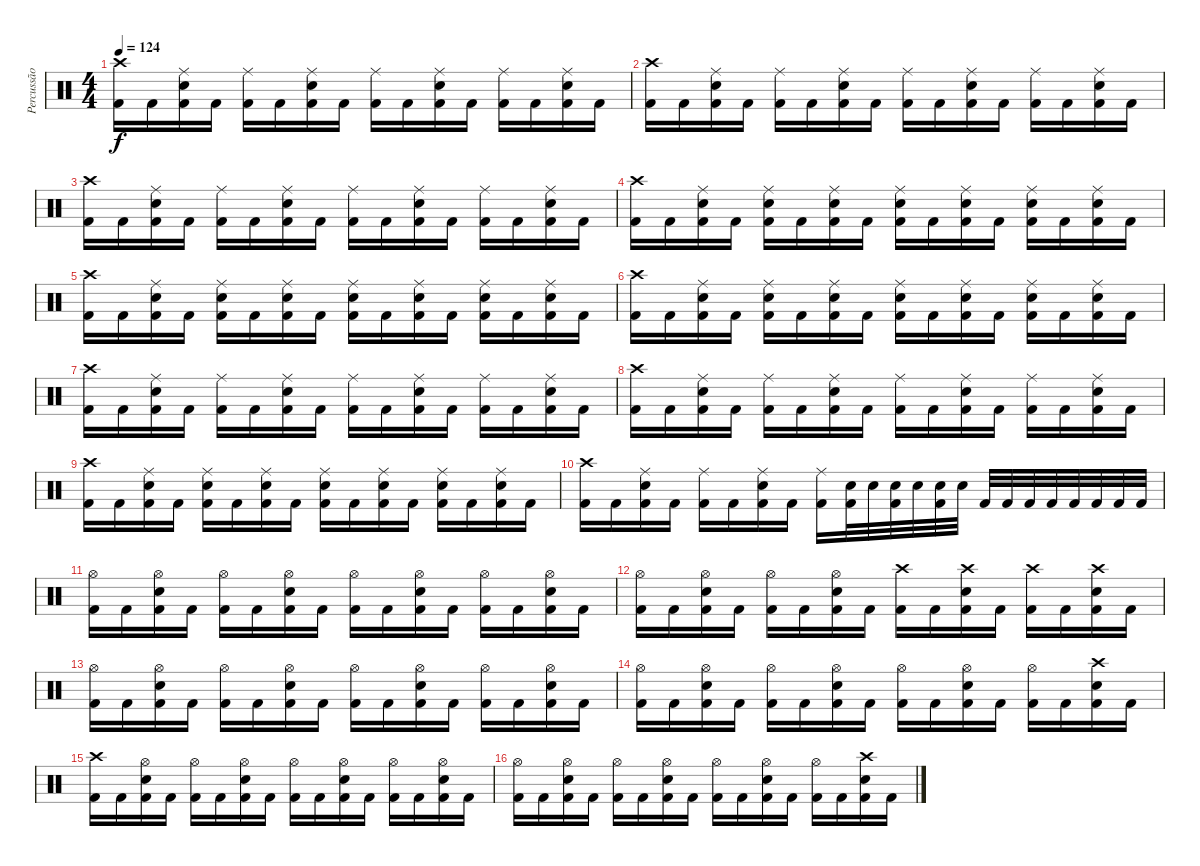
\track ("Percussão" "Percussão") {instrument percussion}
\staff {score}
\articulation defaults
\ts (4 4)
\tempo 124
\clef neutral
\ks c
("Kick (hit) 2" "Crash high (hit)").16{dy f} "Kick (hit) 2".16 ("Kick (hit) 2" "Electric Snare (hit)" "Ride (middle)").16 "Kick (hit) 2".16 ("Kick (hit) 2" "Ride (middle)").16 "Kick (hit) 2".16 ("Kick (hit) 2" "Electric Snare (hit)" "Ride (middle)").16 "Kick (hit) 2".16 ("Kick (hit) 2" "Ride (middle)").16 "Kick (hit) 2".16 ("Kick (hit) 2" "Electric Snare (hit)" "Ride (middle)").16 "Kick (hit) 2".16 ("Kick (hit) 2" "Ride (middle)").16 "Kick (hit) 2".16 ("Kick (hit) 2" "Electric Snare (hit)" "Ride (middle)").16 "Kick (hit) 2".16 |
("Kick (hit) 2" "Crash high (hit)").16 "Kick (hit) 2".16 ("Kick (hit) 2" "Electric Snare (hit)" "Ride (middle)").16 "Kick (hit) 2".16 ("Kick (hit) 2" "Ride (middle)").16 "Kick (hit) 2".16 ("Kick (hit) 2" "Electric Snare (hit)" "Ride (middle)").16 "Kick (hit) 2".16 ("Kick (hit) 2" "Ride (middle)").16 "Kick (hit) 2".16 ("Kick (hit) 2" "Electric Snare (hit)" "Ride (middle)").16 "Kick (hit) 2".16 ("Kick (hit) 2" "Ride (middle)").16 "Kick (hit) 2".16 ("Kick (hit) 2" "Electric Snare (hit)" "Ride (middle)").16 "Kick (hit) 2".16 |
("Kick (hit) 2" "Crash high (hit)").16 "Kick (hit) 2".16 ("Kick (hit) 2" "Electric Snare (hit)" "Ride (middle)").16 "Kick (hit) 2".16 ("Kick (hit) 2" "Ride (middle)").16 "Kick (hit) 2".16 ("Kick (hit) 2" "Electric Snare (hit)" "Ride (middle)").16 "Kick (hit) 2".16 ("Kick (hit) 2" "Ride (middle)").16 "Kick (hit) 2".16 ("Kick (hit) 2" "Electric Snare (hit)" "Ride (middle)").16 "Kick (hit) 2".16 ("Kick (hit) 2" "Ride (middle)").16 "Kick (hit) 2".16 ("Kick (hit) 2" "Electric Snare (hit)" "Ride (middle)").16 "Kick (hit) 2".16 |
("Kick (hit) 2" "Crash high (hit)").16 "Kick (hit) 2".16 ("Kick (hit) 2" "Electric Snare (hit)" "Ride (middle)").16 "Kick (hit) 2".16 ("Kick (hit) 2" "Electric Snare (hit)" "Ride (middle)").16 "Kick (hit) 2".16 ("Kick (hit) 2" "Electric Snare (hit)" "Ride (middle)").16 "Kick (hit) 2".16 ("Kick (hit) 2" "Electric Snare (hit)" "Ride (middle)").16 "Kick (hit) 2".16 ("Kick (hit) 2" "Electric Snare (hit)" "Ride (middle)").16 "Kick (hit) 2".16 ("Kick (hit) 2" "Electric Snare (hit)" "Ride (middle)").16 "Kick (hit) 2".16 ("Kick (hit) 2" "Electric Snare (hit)" "Ride (middle)").16 "Kick (hit) 2".16 |
("Kick (hit) 2" "Crash high (hit)").16 "Kick (hit) 2".16 ("Kick (hit) 2" "Electric Snare (hit)" "Ride (middle)").16 "Kick (hit) 2".16 ("Kick (hit) 2" "Electric Snare (hit)" "Ride (middle)").16 "Kick (hit) 2".16 ("Kick (hit) 2" "Electric Snare (hit)" "Ride (middle)").16 "Kick (hit) 2".16 ("Kick (hit) 2" "Electric Snare (hit)" "Ride (middle)").16 "Kick (hit) 2".16 ("Kick (hit) 2" "Electric Snare (hit)" "Ride (middle)").16 "Kick (hit) 2".16 ("Kick (hit) 2" "Electric Snare (hit)" "Ride (middle)").16 "Kick (hit) 2".16 ("Kick (hit) 2" "Electric Snare (hit)" "Ride (middle)").16 "Kick (hit) 2".16 |
("Kick (hit) 2" "Crash high (hit)").16 "Kick (hit) 2".16 ("Kick (hit) 2" "Electric Snare (hit)" "Ride (middle)").16 "Kick (hit) 2".16 ("Kick (hit) 2" "Electric Snare (hit)" "Ride (middle)").16 "Kick (hit) 2".16 ("Kick (hit) 2" "Electric Snare (hit)" "Ride (middle)").16 "Kick (hit) 2".16 ("Kick (hit) 2" "Electric Snare (hit)" "Ride (middle)").16 "Kick (hit) 2".16 ("Kick (hit) 2" "Electric Snare (hit)" "Ride (middle)").16 "Kick (hit) 2".16 ("Kick (hit) 2" "Electric Snare (hit)" "Ride (middle)").16 "Kick (hit) 2".16 ("Kick (hit) 2" "Electric Snare (hit)" "Ride (middle)").16 "Kick (hit) 2".16 |
("Kick (hit) 2" "Crash high (hit)").16 "Kick (hit) 2".16 ("Kick (hit) 2" "Electric Snare (hit)" "Ride (middle)").16 "Kick (hit) 2".16 ("Kick (hit) 2" "Ride (middle)").16 "Kick (hit) 2".16 ("Kick (hit) 2" "Electric Snare (hit)" "Ride (middle)").16 "Kick (hit) 2".16 ("Kick (hit) 2" "Ride (middle)").16 "Kick (hit) 2".16 ("Kick (hit) 2" "Electric Snare (hit)" "Ride (middle)").16 "Kick (hit) 2".16 ("Kick (hit) 2" "Ride (middle)").16 "Kick (hit) 2".16 ("Kick (hit) 2" "Electric Snare (hit)" "Ride (middle)").16 "Kick (hit) 2".16 |
("Kick (hit) 2" "Crash high (hit)").16 "Kick (hit) 2".16 ("Kick (hit) 2" "Electric Snare (hit)" "Ride (middle)").16 "Kick (hit) 2".16 ("Kick (hit) 2" "Ride (middle)").16 "Kick (hit) 2".16 ("Kick (hit) 2" "Electric Snare (hit)" "Ride (middle)").16 "Kick (hit) 2".16 ("Kick (hit) 2" "Ride (middle)").16 "Kick (hit) 2".16 ("Kick (hit) 2" "Electric Snare (hit)" "Ride (middle)").16 "Kick (hit) 2".16 ("Kick (hit) 2" "Ride (middle)").16 "Kick (hit) 2".16 ("Kick (hit) 2" "Electric Snare (hit)" "Ride (middle)").16 "Kick (hit) 2".16 |
("Kick (hit) 2" "Crash high (hit)").16 "Kick (hit) 2".16 ("Kick (hit) 2" "Electric Snare (hit)" "Ride (middle)").16 "Kick (hit) 2".16 ("Kick (hit) 2" "Electric Snare (hit)" "Ride (middle)").16 "Kick (hit) 2".16 ("Kick (hit) 2" "Electric Snare (hit)" "Ride (middle)").16 "Kick (hit) 2".16 ("Kick (hit) 2" "Electric Snare (hit)" "Ride (middle)").16 "Kick (hit) 2".16 ("Kick (hit) 2" "Electric Snare (hit)" "Ride (middle)").16 "Kick (hit) 2".16 ("Kick (hit) 2" "Electric Snare (hit)" "Ride (middle)").16 "Kick (hit) 2".16 ("Kick (hit) 2" "Electric Snare (hit)" "Ride (middle)").16 "Kick (hit) 2".16 |
("Kick (hit) 2" "Crash high (hit)").16 "Kick (hit) 2".16 ("Kick (hit) 2" "Electric Snare (hit)" "Ride (middle)").16 "Kick (hit) 2".16 ("Kick (hit) 2" "Ride (middle)").16 "Kick (hit) 2".16 ("Kick (hit) 2" "Electric Snare (hit)" "Ride (middle)").16 "Kick (hit) 2".16 ("Kick (hit) 2" "Ride (middle)").16 ("Kick (hit) 2" "Electric Snare (hit)").32 "Electric Snare (hit)".32 ("Kick (hit) 2" "Electric Snare (hit)").32 "Electric Snare (hit)".32 ("Kick (hit) 2" "Electric Snare (hit)").32 "Electric Snare (hit)".32 "Kick (hit) 2".32 "Kick (hit) 2".32 "Kick (hit) 2".32 "Kick (hit) 2".32 "Kick (hit) 2".32 "Kick (hit) 2".32 "Kick (hit) 2".32 "Kick (hit) 2".32 |
("Kick (hit) 2" "Hi-Hat (open)").16 "Kick (hit) 2".16 ("Kick (hit) 2" "Electric Snare (hit)" "Hi-Hat (open)").16 "Kick (hit) 2".16 ("Kick (hit) 2" "Hi-Hat (open)").16 "Kick (hit) 2".16 ("Kick (hit) 2" "Electric Snare (hit)" "Hi-Hat (open)").16 "Kick (hit) 2".16 ("Kick (hit) 2" "Hi-Hat (open)").16 "Kick (hit) 2".16 ("Kick (hit) 2" "Electric Snare (hit)" "Hi-Hat (open)").16 "Kick (hit) 2".16 ("Kick (hit) 2" "Hi-Hat (open)").16 "Kick (hit) 2".16 ("Kick (hit) 2" "Electric Snare (hit)" "Hi-Hat (open)").16 "Kick (hit) 2".16 |
("Kick (hit) 2" "Hi-Hat (open)").16 "Kick (hit) 2".16 ("Kick (hit) 2" "Electric Snare (hit)" "Hi-Hat (open)").16 "Kick (hit) 2".16 ("Kick (hit) 2" "Hi-Hat (open)").16 "Kick (hit) 2".16 ("Kick (hit) 2" "Electric Snare (hit)" "Hi-Hat (open)").16 "Kick (hit) 2".16 ("Kick (hit) 2" "Crash high (hit)").16 "Kick (hit) 2".16 ("Kick (hit) 2" "Electric Snare (hit)" "Crash high (hit)").16 "Kick (hit) 2".16 ("Kick (hit) 2" "Crash high (hit)").16 "Kick (hit) 2".16 ("Kick (hit) 2" "Electric Snare (hit)" "Crash high (hit)").16 "Kick (hit) 2".16 |
("Kick (hit) 2" "Hi-Hat (open)").16 "Kick (hit) 2".16 ("Kick (hit) 2" "Electric Snare (hit)" "Hi-Hat (open)").16 "Kick (hit) 2".16 ("Kick (hit) 2" "Hi-Hat (open)").16 "Kick (hit) 2".16 ("Kick (hit) 2" "Electric Snare (hit)" "Hi-Hat (open)").16 "Kick (hit) 2".16 ("Kick (hit) 2" "Hi-Hat (open)").16 "Kick (hit) 2".16 ("Kick (hit) 2" "Electric Snare (hit)" "Hi-Hat (open)").16 "Kick (hit) 2".16 ("Kick (hit) 2" "Hi-Hat (open)").16 "Kick (hit) 2".16 ("Kick (hit) 2" "Electric Snare (hit)" "Hi-Hat (open)").16 "Kick (hit) 2".16 |
("Kick (hit) 2" "Hi-Hat (open)").16 "Kick (hit) 2".16 ("Kick (hit) 2" "Electric Snare (hit)" "Hi-Hat (open)").16 "Kick (hit) 2".16 ("Kick (hit) 2" "Hi-Hat (open)").16 "Kick (hit) 2".16 ("Kick (hit) 2" "Electric Snare (hit)" "Hi-Hat (open)").16 "Kick (hit) 2".16 ("Kick (hit) 2" "Hi-Hat (open)").16 "Kick (hit) 2".16 ("Kick (hit) 2" "Electric Snare (hit)" "Hi-Hat (open)").16 "Kick (hit) 2".16 ("Kick (hit) 2" "Hi-Hat (open)").16 "Kick (hit) 2".16 ("Kick (hit) 2" "Electric Snare (hit)" "Crash high (hit)").16 "Kick (hit) 2".16 |
("Kick (hit) 2" "Crash high (hit)").16 "Kick (hit) 2".16 ("Kick (hit) 2" "Electric Snare (hit)" "Hi-Hat (open)").16 "Kick (hit) 2".16 ("Kick (hit) 2" "Hi-Hat (open)").16 "Kick (hit) 2".16 ("Kick (hit) 2" "Electric Snare (hit)" "Hi-Hat (open)").16 "Kick (hit) 2".16 ("Kick (hit) 2" "Hi-Hat (open)").16 "Kick (hit) 2".16 ("Kick (hit) 2" "Electric Snare (hit)" "Hi-Hat (open)").16 "Kick (hit) 2".16 ("Kick (hit) 2" "Hi-Hat (open)").16 "Kick (hit) 2".16 ("Kick (hit) 2" "Electric Snare (hit)" "Hi-Hat (open)").16 "Kick (hit) 2".16 |
("Kick (hit) 2" "Hi-Hat (open)").16 "Kick (hit) 2".16 ("Kick (hit) 2" "Electric Snare (hit)" "Hi-Hat (open)").16 "Kick (hit) 2".16 ("Kick (hit) 2" "Hi-Hat (open)").16 "Kick (hit) 2".16 ("Kick (hit) 2" "Electric Snare (hit)" "Hi-Hat (open)").16 "Kick (hit) 2".16 ("Kick (hit) 2" "Hi-Hat (open)").16 "Kick (hit) 2".16 ("Kick (hit) 2" "Electric Snare (hit)" "Hi-Hat (open)").16 "Kick (hit) 2".16 ("Kick (hit) 2" "Hi-Hat (open)").16 "Kick (hit) 2".16 ("Kick (hit) 2" "Electric Snare (hit)" "Crash high (hit)").16 "Kick (hit) 2".16
